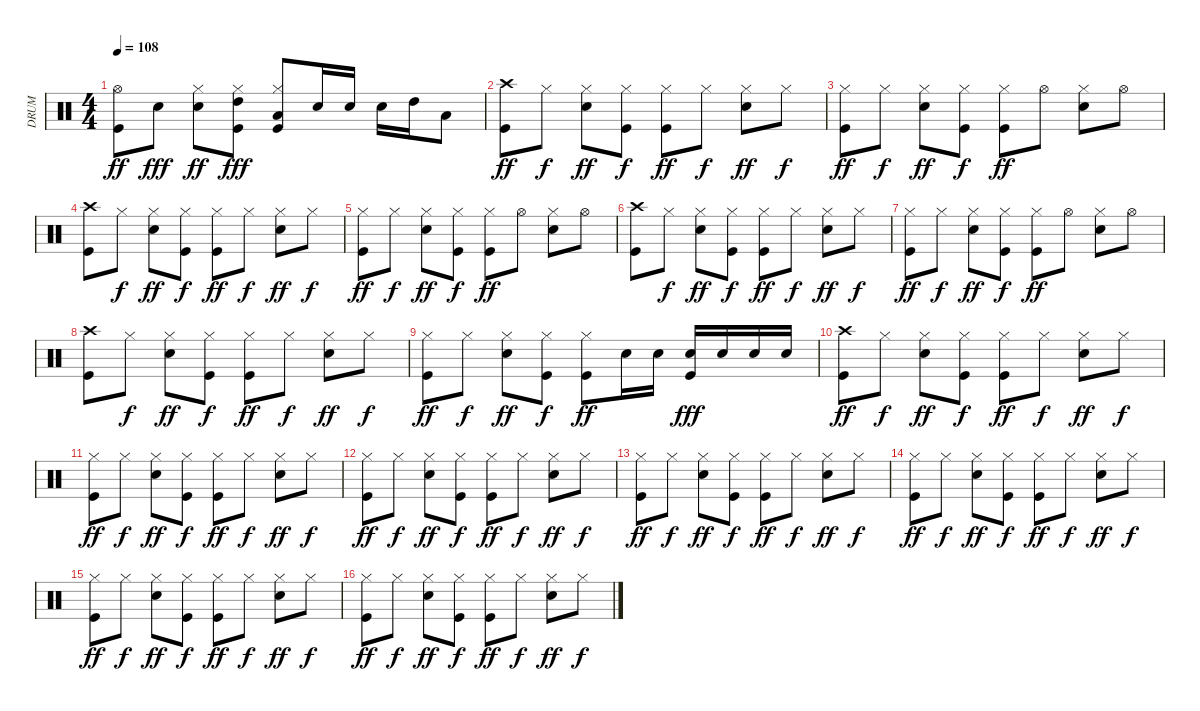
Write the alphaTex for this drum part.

\track ("DRUM" "DRUM") {instrument percussion}
\staff {score}
\articulation defaults
\ts (4 4)
\tempo 108
\clef neutral
\ks c
("Kick (hit)" "Hi-Hat (open)").8{dy ff} "Electric Snare (hit)".8{dy fff} ("Electric Snare (hit)" "Hi-Hat (closed)").8{dy ff} ("Kick (hit)" "Hi-Hat (closed)" "High Tom (hit)").8{dy fff} ("Kick (hit)" "Hi-Hat (closed)" "Low Tom (hit)").8 "Electric Snare (hit)".16 "Electric Snare (hit)".16 "Electric Snare (hit)".16 "High Tom (hit)".16 "Low Tom (hit)".8 |
("Kick (hit)" "Crash high (hit)").8{dy ff} "Hi-Hat (closed)".8{dy f} ("Electric Snare (hit)" "Hi-Hat (closed)").8{dy ff} ("Kick (hit)" "Hi-Hat (closed)").8{dy f} ("Kick (hit)" "Hi-Hat (closed)").8{dy ff} "Hi-Hat (closed)".8{dy f} ("Electric Snare (hit)" "Hi-Hat (closed)").8{dy ff} "Hi-Hat (closed)".8{dy f} |
("Kick (hit)" "Hi-Hat (closed)").8{dy ff} "Hi-Hat (closed)".8{dy f} ("Electric Snare (hit)" "Hi-Hat (closed)").8{dy ff} ("Kick (hit)" "Hi-Hat (closed)").8{dy f} ("Kick (hit)" "Hi-Hat (closed)").8{dy ff} "Hi-Hat (open)".8 ("Electric Snare (hit)" "Hi-Hat (closed)").8 "Hi-Hat (open)".8 |
("Kick (hit)" "Crash high (hit)").8 "Hi-Hat (closed)".8{dy f} ("Electric Snare (hit)" "Hi-Hat (closed)").8{dy ff} ("Kick (hit)" "Hi-Hat (closed)").8{dy f} ("Kick (hit)" "Hi-Hat (closed)").8{dy ff} "Hi-Hat (closed)".8{dy f} ("Electric Snare (hit)" "Hi-Hat (closed)").8{dy ff} "Hi-Hat (closed)".8{dy f} |
("Kick (hit)" "Hi-Hat (closed)").8{dy ff} "Hi-Hat (closed)".8{dy f} ("Electric Snare (hit)" "Hi-Hat (closed)").8{dy ff} ("Kick (hit)" "Hi-Hat (closed)").8{dy f} ("Kick (hit)" "Hi-Hat (closed)").8{dy ff} "Hi-Hat (open)".8 ("Electric Snare (hit)" "Hi-Hat (closed)").8 "Hi-Hat (open)".8 |
("Kick (hit)" "Crash high (hit)").8 "Hi-Hat (closed)".8{dy f} ("Electric Snare (hit)" "Hi-Hat (closed)").8{dy ff} ("Kick (hit)" "Hi-Hat (closed)").8{dy f} ("Kick (hit)" "Hi-Hat (closed)").8{dy ff} "Hi-Hat (closed)".8{dy f} ("Electric Snare (hit)" "Hi-Hat (closed)").8{dy ff} "Hi-Hat (closed)".8{dy f} |
("Kick (hit)" "Hi-Hat (closed)").8{dy ff} "Hi-Hat (closed)".8{dy f} ("Electric Snare (hit)" "Hi-Hat (closed)").8{dy ff} ("Kick (hit)" "Hi-Hat (closed)").8{dy f} ("Kick (hit)" "Hi-Hat (closed)").8{dy ff} "Hi-Hat (open)".8 ("Electric Snare (hit)" "Hi-Hat (closed)").8 "Hi-Hat (open)".8 |
("Kick (hit)" "Crash high (hit)").8 "Hi-Hat (closed)".8{dy f} ("Electric Snare (hit)" "Hi-Hat (closed)").8{dy ff} ("Kick (hit)" "Hi-Hat (closed)").8{dy f} ("Kick (hit)" "Hi-Hat (closed)").8{dy ff} "Hi-Hat (closed)".8{dy f} ("Electric Snare (hit)" "Hi-Hat (closed)").8{dy ff} "Hi-Hat (closed)".8{dy f} |
("Kick (hit)" "Hi-Hat (closed)").8{dy ff} "Hi-Hat (closed)".8{dy f} ("Electric Snare (hit)" "Hi-Hat (closed)").8{dy ff} ("Kick (hit)" "Hi-Hat (closed)").8{dy f} ("Kick (hit)" "Hi-Hat (closed)").8{dy ff} "Electric Snare (hit)".16 "Electric Snare (hit)".16 ("Kick (hit)" "Electric Snare (hit)").16{dy fff} "Electric Snare (hit)".16 "Electric Snare (hit)".16 "Electric Snare (hit)".16 |
("Kick (hit)" "Crash high (hit)").8{dy ff} "Hi-Hat (closed)".8{dy f} ("Electric Snare (hit)" "Hi-Hat (closed)").8{dy ff} ("Kick (hit)" "Hi-Hat (closed)").8{dy f} ("Kick (hit)" "Hi-Hat (closed)").8{dy ff} "Hi-Hat (closed)".8{dy f} ("Electric Snare (hit)" "Hi-Hat (closed)").8{dy ff} "Hi-Hat (closed)".8{dy f} |
("Kick (hit)" "Hi-Hat (closed)").8{dy ff} "Hi-Hat (closed)".8{dy f} ("Electric Snare (hit)" "Hi-Hat (closed)").8{dy ff} ("Kick (hit)" "Hi-Hat (closed)").8{dy f} ("Kick (hit)" "Hi-Hat (closed)").8{dy ff} "Hi-Hat (closed)".8{dy f} ("Electric Snare (hit)" "Hi-Hat (closed)").8{dy ff} "Hi-Hat (closed)".8{dy f} |
("Kick (hit)" "Hi-Hat (closed)").8{dy ff} "Hi-Hat (closed)".8{dy f} ("Electric Snare (hit)" "Hi-Hat (closed)").8{dy ff} ("Kick (hit)" "Hi-Hat (closed)").8{dy f} ("Kick (hit)" "Hi-Hat (closed)").8{dy ff} "Hi-Hat (closed)".8{dy f} ("Electric Snare (hit)" "Hi-Hat (closed)").8{dy ff} "Hi-Hat (closed)".8{dy f} |
("Kick (hit)" "Hi-Hat (closed)").8{dy ff} "Hi-Hat (closed)".8{dy f} ("Electric Snare (hit)" "Hi-Hat (closed)").8{dy ff} ("Kick (hit)" "Hi-Hat (closed)").8{dy f} ("Kick (hit)" "Hi-Hat (closed)").8{dy ff} "Hi-Hat (closed)".8{dy f} ("Electric Snare (hit)" "Hi-Hat (closed)").8{dy ff} "Hi-Hat (closed)".8{dy f} |
("Kick (hit)" "Hi-Hat (closed)").8{dy ff} "Hi-Hat (closed)".8{dy f} ("Electric Snare (hit)" "Hi-Hat (closed)").8{dy ff} ("Kick (hit)" "Hi-Hat (closed)").8{dy f} ("Kick (hit)" "Hi-Hat (closed)").8{dy ff} "Hi-Hat (closed)".8{dy f} ("Electric Snare (hit)" "Hi-Hat (closed)").8{dy ff} "Hi-Hat (closed)".8{dy f} |
("Kick (hit)" "Hi-Hat (closed)").8{dy ff} "Hi-Hat (closed)".8{dy f} ("Electric Snare (hit)" "Hi-Hat (closed)").8{dy ff} ("Kick (hit)" "Hi-Hat (closed)").8{dy f} ("Kick (hit)" "Hi-Hat (closed)").8{dy ff} "Hi-Hat (closed)".8{dy f} ("Electric Snare (hit)" "Hi-Hat (closed)").8{dy ff} "Hi-Hat (closed)".8{dy f} |
("Kick (hit)" "Hi-Hat (closed)").8{dy ff} "Hi-Hat (closed)".8{dy f} ("Electric Snare (hit)" "Hi-Hat (closed)").8{dy ff} ("Kick (hit)" "Hi-Hat (closed)").8{dy f} ("Kick (hit)" "Hi-Hat (closed)").8{dy ff} "Hi-Hat (closed)".8{dy f} ("Electric Snare (hit)" "Hi-Hat (closed)").8{dy ff} "Hi-Hat (closed)".8{dy f}
